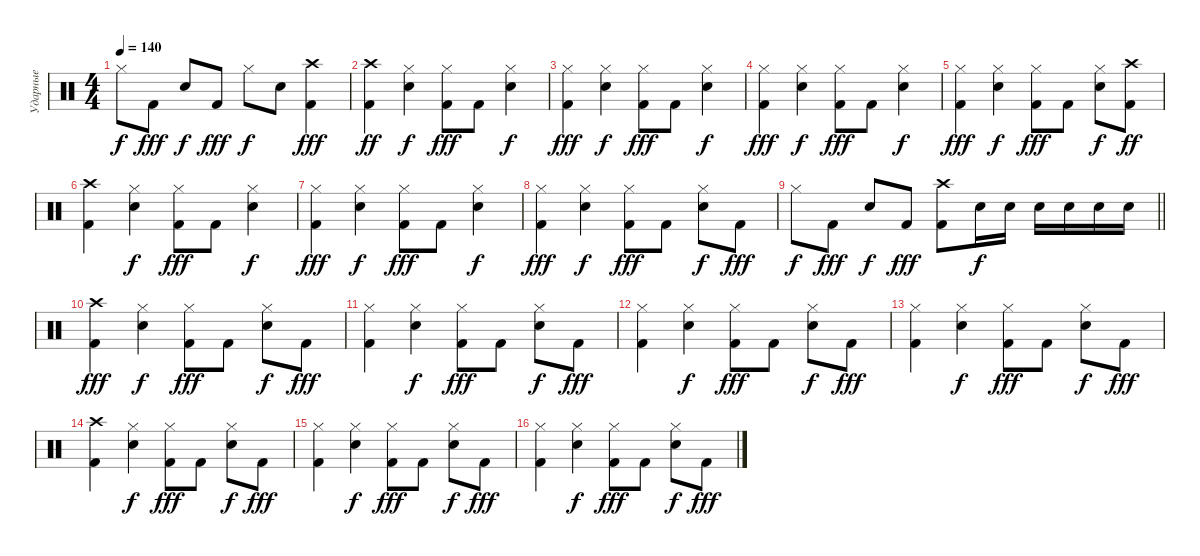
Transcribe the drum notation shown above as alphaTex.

\track ("Ударные" "Ударные") {instrument percussion}
\staff {score}
\articulation defaults
\ts (4 4)
\tempo 140
\clef neutral
\ks c "Hi-Hat (closed)".8{dy f} "Kick (hit) 2".8{dy fff} "Snare (hit) 2".8{dy f} "Kick (hit) 2".8{dy fff} "Hi-Hat (closed)".8{dy f} "Snare (hit) 2".8
("Kick (hit) 2" "Crash high (hit)").4{dy fff} |
("Kick (hit) 2" "Crash high (hit)").4{dy ff} ("Snare (hit) 2" "Hi-Hat (closed)").4{dy f} ("Kick (hit) 2" "Hi-Hat (closed)").8{dy fff} "Kick (hit) 2".8 ("Snare (hit) 2" "Hi-Hat (closed)").4{dy f} |
("Kick (hit) 2" "Hi-Hat (closed)").4{dy fff} ("Snare (hit) 2" "Hi-Hat (closed)").4{dy f} ("Kick (hit) 2" "Hi-Hat (closed)").8{dy fff} "Kick (hit) 2".8 ("Snare (hit) 2" "Hi-Hat (closed)").4{dy f} |
("Kick (hit) 2" "Hi-Hat (closed)").4{dy fff} ("Snare (hit) 2" "Hi-Hat (closed)").4{dy f} ("Kick (hit) 2" "Hi-Hat (closed)").8{dy fff} "Kick (hit) 2".8 ("Snare (hit) 2" "Hi-Hat (closed)").4{dy f} |
("Kick (hit) 2" "Hi-Hat (closed)").4{dy fff} ("Snare (hit) 2" "Hi-Hat (closed)").4{dy f} ("Kick (hit) 2" "Hi-Hat (closed)").8{dy fff} "Kick (hit) 2".8 ("Snare (hit) 2" "Hi-Hat (closed)").8{dy f} ("Kick (hit) 2" "Crash high (hit)").8{dy ff} |
("Kick (hit) 2" "Crash high (hit)").4 ("Snare (hit) 2" "Hi-Hat (closed)").4{dy f} ("Kick (hit) 2" "Hi-Hat (closed)").8{dy fff} "Kick (hit) 2".8 ("Snare (hit) 2" "Hi-Hat (closed)").4{dy f} |
("Kick (hit) 2" "Hi-Hat (closed)").4{dy fff} ("Snare (hit) 2" "Hi-Hat (closed)").4{dy f} ("Kick (hit) 2" "Hi-Hat (closed)").8{dy fff} "Kick (hit) 2".8 ("Snare (hit) 2" "Hi-Hat (closed)").4{dy f} |
("Kick (hit) 2" "Hi-Hat (closed)").4{dy fff} ("Snare (hit) 2" "Hi-Hat (closed)").4{dy f} ("Kick (hit) 2" "Hi-Hat (closed)").8{dy fff} "Kick (hit) 2".8 ("Snare (hit) 2" "Hi-Hat (closed)").8{dy f} "Kick (hit) 2".8{dy fff} |
\barLineRight lightlight "Hi-Hat (closed)".8{dy f} "Kick (hit) 2".8{dy fff} "Snare (hit) 2".8{dy f} "Kick (hit) 2".8{dy fff}
("Kick (hit) 2" "Crash high (hit)").8 "Snare (hit) 2".16{dy f} "Snare (hit) 2".16 "Snare (hit) 2".16 "Snare (hit) 2".16 "Snare (hit) 2".16 "Snare (hit) 2".16 |
("Kick (hit) 2" "Crash high (hit)").4{dy fff} ("Snare (hit) 2" "Hi-Hat (closed)").4{dy f} ("Kick (hit) 2" "Hi-Hat (closed)").8{dy fff} "Kick (hit) 2".8 ("Snare (hit) 2" "Hi-Hat (closed)").8{dy f} "Kick (hit) 2".8{dy fff} |
("Kick (hit) 2" "Hi-Hat (closed)").4 ("Snare (hit) 2" "Hi-Hat (closed)").4{dy f} ("Kick (hit) 2" "Hi-Hat (closed)").8{dy fff} "Kick (hit) 2".8 ("Snare (hit) 2" "Hi-Hat (closed)").8{dy f} "Kick (hit) 2".8{dy fff} |
("Kick (hit) 2" "Hi-Hat (closed)").4 ("Snare (hit) 2" "Hi-Hat (closed)").4{dy f} ("Kick (hit) 2" "Hi-Hat (closed)").8{dy fff} "Kick (hit) 2".8 ("Snare (hit) 2" "Hi-Hat (closed)").8{dy f} "Kick (hit) 2".8{dy fff} |
("Kick (hit) 2" "Hi-Hat (closed)").4 ("Snare (hit) 2" "Hi-Hat (closed)").4{dy f} ("Kick (hit) 2" "Hi-Hat (closed)").8{dy fff} "Kick (hit) 2".8 ("Snare (hit) 2" "Hi-Hat (closed)").8{dy f} "Kick (hit) 2".8{dy fff} |
("Kick (hit) 2" "Crash high (hit)").4 ("Snare (hit) 2" "Hi-Hat (closed)").4{dy f} ("Kick (hit) 2" "Hi-Hat (closed)").8{dy fff} "Kick (hit) 2".8 ("Snare (hit) 2" "Hi-Hat (closed)").8{dy f} "Kick (hit) 2".8{dy fff} |
("Kick (hit) 2" "Hi-Hat (closed)").4 ("Snare (hit) 2" "Hi-Hat (closed)").4{dy f} ("Kick (hit) 2" "Hi-Hat (closed)").8{dy fff} "Kick (hit) 2".8 ("Snare (hit) 2" "Hi-Hat (closed)").8{dy f} "Kick (hit) 2".8{dy fff} |
("Kick (hit) 2" "Hi-Hat (closed)").4 ("Snare (hit) 2" "Hi-Hat (closed)").4{dy f} ("Kick (hit) 2" "Hi-Hat (closed)").8{dy fff} "Kick (hit) 2".8 ("Snare (hit) 2" "Hi-Hat (closed)").8{dy f} "Kick (hit) 2".8{dy fff}
